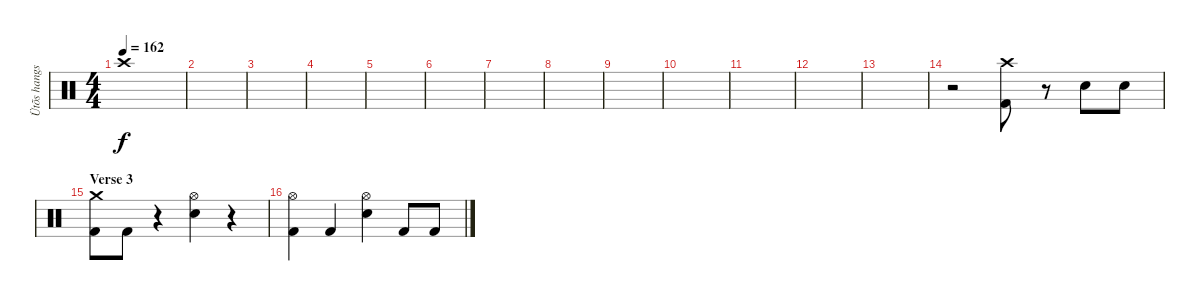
\track ("Ütõs hangszer" "Ütõs hangs") {instrument percussion}
\staff {score}
\articulation defaults
\ts (4 4)
\tempo 162
\clef neutral
\ks c "Crash high (hit)".1{dy f}
|
|
|
|
|
|
|
|
|
|
|
|
|
r.2 ("Kick (hit) 2" "Crash high (hit)").8 r.8 "Snare (hit) 2".8 "Snare (hit) 2".8 |
\section ("" "Verse 3")
("Crash medium (hit)" "Kick (hit) 2").8 "Kick (hit) 2".8 r.4 ("Hi-Hat (open)" "Electric Snare (hit)").4 r.4 |
("Hi-Hat (open)" "Kick (hit) 2").4 "Kick (hit) 2".4 ("Hi-Hat (open)" "Electric Snare (hit)").4 "Kick (hit) 2".8 "Kick (hit) 2".8
